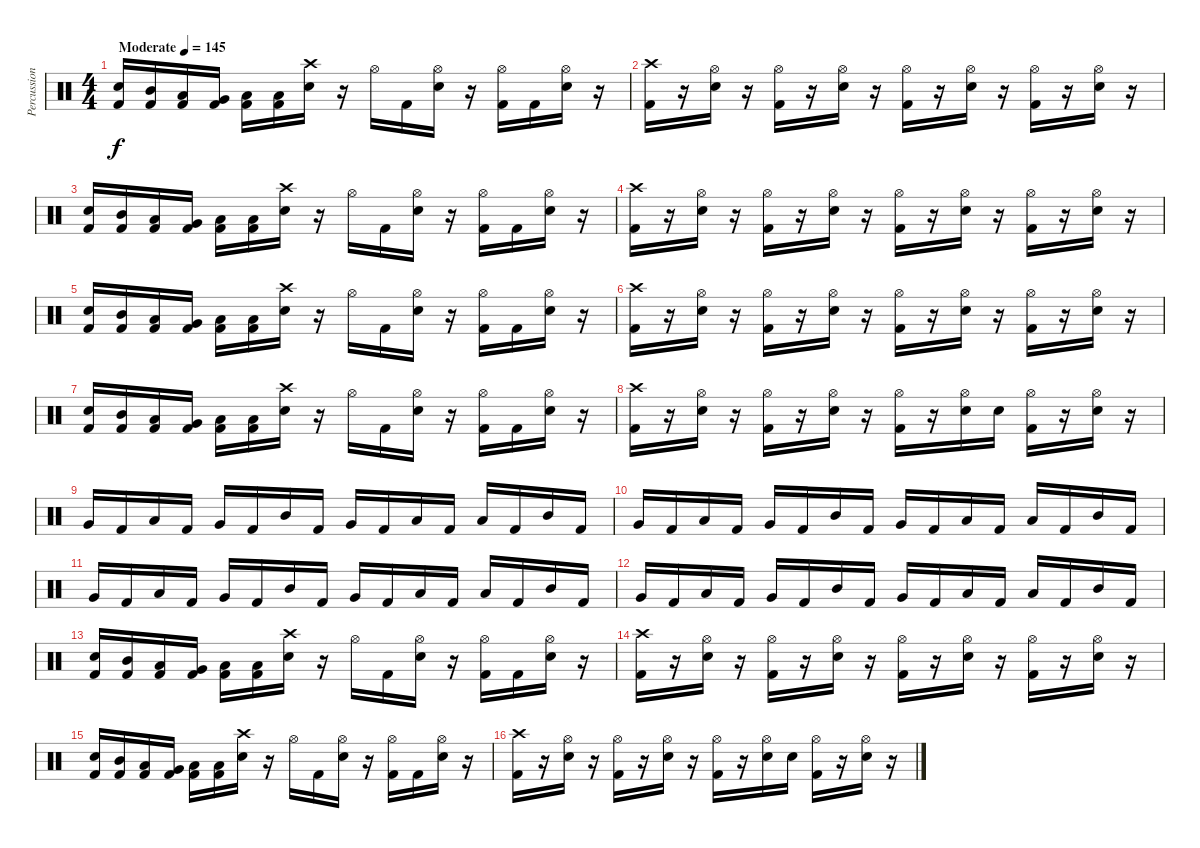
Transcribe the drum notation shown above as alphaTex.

\track ("Percussion - pinch" "Percussion") {instrument percussion}
\staff
\articulation defaults
\ts (4 4)
\tempo (145 "Moderate")
\clef neutral
\ks c
("Electric Snare (hit)" "Kick (hit) 2").16{dy f} ("Mid Tom (hit)" "Kick (hit) 2").16 ("Low Tom (hit)" "Kick (hit) 2").16 ("Very Low Tom (hit)" "Kick (hit) 2").16 ("Low Floor Tom (hit)" "Kick (hit) 2").16 ("Low Floor Tom (hit)" "Kick (hit) 2").16 ("Crash high (hit)" "Electric Snare (hit)").16 r.16 "Hi-Hat (open)".16 "Kick (hit) 2".16 ("Hi-Hat (open)" "Electric Snare (hit)").16 r.16 ("Hi-Hat (open)" "Kick (hit) 2").16 "Kick (hit) 2".16 ("Hi-Hat (open)" "Electric Snare (hit)").16 r.16 |
("Crash high (hit)" "Kick (hit) 2").16 r.16 ("Hi-Hat (open)" "Electric Snare (hit)").16 r.16 ("Hi-Hat (open)" "Kick (hit) 2").16 r.16 ("Hi-Hat (open)" "Electric Snare (hit)").16 r.16 ("Hi-Hat (open)" "Kick (hit) 2").16 r.16 ("Hi-Hat (open)" "Electric Snare (hit)").16 r.16 ("Hi-Hat (open)" "Kick (hit) 2").16 r.16 ("Hi-Hat (open)" "Electric Snare (hit)").16 r.16 |
("Electric Snare (hit)" "Kick (hit) 2").16 ("Mid Tom (hit)" "Kick (hit) 2").16 ("Low Tom (hit)" "Kick (hit) 2").16 ("Very Low Tom (hit)" "Kick (hit) 2").16 ("Low Floor Tom (hit)" "Kick (hit) 2").16 ("Low Floor Tom (hit)" "Kick (hit) 2").16 ("Crash high (hit)" "Electric Snare (hit)").16 r.16 "Hi-Hat (open)".16 "Kick (hit) 2".16 ("Hi-Hat (open)" "Electric Snare (hit)").16 r.16 ("Hi-Hat (open)" "Kick (hit) 2").16 "Kick (hit) 2".16 ("Hi-Hat (open)" "Electric Snare (hit)").16 r.16 |
("Crash high (hit)" "Kick (hit) 2").16 r.16 ("Hi-Hat (open)" "Electric Snare (hit)").16 r.16 ("Hi-Hat (open)" "Kick (hit) 2").16 r.16 ("Hi-Hat (open)" "Electric Snare (hit)").16 r.16 ("Hi-Hat (open)" "Kick (hit) 2").16 r.16 ("Hi-Hat (open)" "Electric Snare (hit)").16 r.16 ("Hi-Hat (open)" "Kick (hit) 2").16 r.16 ("Hi-Hat (open)" "Electric Snare (hit)").16 r.16 |
("Electric Snare (hit)" "Kick (hit) 2").16 ("Mid Tom (hit)" "Kick (hit) 2").16 ("Low Tom (hit)" "Kick (hit) 2").16 ("Very Low Tom (hit)" "Kick (hit) 2").16 ("Low Floor Tom (hit)" "Kick (hit) 2").16 ("Low Floor Tom (hit)" "Kick (hit) 2").16 ("Crash high (hit)" "Electric Snare (hit)").16 r.16 "Hi-Hat (open)".16 "Kick (hit) 2".16 ("Hi-Hat (open)" "Electric Snare (hit)").16 r.16 ("Hi-Hat (open)" "Kick (hit) 2").16 "Kick (hit) 2".16 ("Hi-Hat (open)" "Electric Snare (hit)").16 r.16 |
("Crash high (hit)" "Kick (hit) 2").16 r.16 ("Hi-Hat (open)" "Electric Snare (hit)").16 r.16 ("Hi-Hat (open)" "Kick (hit) 2").16 r.16 ("Hi-Hat (open)" "Electric Snare (hit)").16 r.16 ("Hi-Hat (open)" "Kick (hit) 2").16 r.16 ("Hi-Hat (open)" "Electric Snare (hit)").16 r.16 ("Hi-Hat (open)" "Kick (hit) 2").16 r.16 ("Hi-Hat (open)" "Electric Snare (hit)").16 r.16 |
("Electric Snare (hit)" "Kick (hit) 2").16 ("Mid Tom (hit)" "Kick (hit) 2").16 ("Low Tom (hit)" "Kick (hit) 2").16 ("Very Low Tom (hit)" "Kick (hit) 2").16 ("Low Floor Tom (hit)" "Kick (hit) 2").16 ("Low Floor Tom (hit)" "Kick (hit) 2").16 ("Crash high (hit)" "Electric Snare (hit)").16 r.16 "Hi-Hat (open)".16 "Kick (hit) 2".16 ("Hi-Hat (open)" "Electric Snare (hit)").16 r.16 ("Hi-Hat (open)" "Kick (hit) 2").16 "Kick (hit) 2".16 ("Hi-Hat (open)" "Electric Snare (hit)").16 r.16 |
("Crash high (hit)" "Kick (hit) 2").16 r.16 ("Hi-Hat (open)" "Electric Snare (hit)").16 r.16 ("Hi-Hat (open)" "Kick (hit) 2").16 r.16 ("Hi-Hat (open)" "Electric Snare (hit)").16 r.16 ("Hi-Hat (open)" "Kick (hit) 2").16 r.16 ("Hi-Hat (open)" "Electric Snare (hit)").16 "Electric Snare (hit)".16 ("Hi-Hat (open)" "Kick (hit) 2").16 r.16 ("Hi-Hat (open)" "Electric Snare (hit)").16 r.16 |
"Very Low Tom (hit)".16 "Kick (hit) 2".16 "Low Tom (hit)".16 "Kick (hit) 2".16 "Very Low Tom (hit)".16 "Kick (hit) 2".16 "Mid Tom (hit)".16 "Kick (hit) 2".16 "Very Low Tom (hit)".16 "Kick (hit) 2".16 "Low Tom (hit)".16 "Kick (hit) 2".16 "Low Floor Tom (hit)".16 "Kick (hit) 2".16 "Mid Tom (hit)".16 "Kick (hit) 2".16 |
"Very Low Tom (hit)".16 "Kick (hit) 2".16 "Low Tom (hit)".16 "Kick (hit) 2".16 "Very Low Tom (hit)".16 "Kick (hit) 2".16 "Mid Tom (hit)".16 "Kick (hit) 2".16 "Very Low Tom (hit)".16 "Kick (hit) 2".16 "Low Tom (hit)".16 "Kick (hit) 2".16 "Low Floor Tom (hit)".16 "Kick (hit) 2".16 "Mid Tom (hit)".16 "Kick (hit) 2".16 |
"Very Low Tom (hit)".16 "Kick (hit) 2".16 "Low Tom (hit)".16 "Kick (hit) 2".16 "Very Low Tom (hit)".16 "Kick (hit) 2".16 "Mid Tom (hit)".16 "Kick (hit) 2".16 "Very Low Tom (hit)".16 "Kick (hit) 2".16 "Low Tom (hit)".16 "Kick (hit) 2".16 "Low Floor Tom (hit)".16 "Kick (hit) 2".16 "Mid Tom (hit)".16 "Kick (hit) 2".16 |
"Very Low Tom (hit)".16 "Kick (hit) 2".16 "Low Tom (hit)".16 "Kick (hit) 2".16 "Very Low Tom (hit)".16 "Kick (hit) 2".16 "Mid Tom (hit)".16 "Kick (hit) 2".16 "Very Low Tom (hit)".16 "Kick (hit) 2".16 "Low Tom (hit)".16 "Kick (hit) 2".16 "Low Floor Tom (hit)".16 "Kick (hit) 2".16 "Mid Tom (hit)".16 "Kick (hit) 2".16 |
("Electric Snare (hit)" "Kick (hit) 2").16 ("Mid Tom (hit)" "Kick (hit) 2").16 ("Low Tom (hit)" "Kick (hit) 2").16 ("Very Low Tom (hit)" "Kick (hit) 2").16 ("Low Floor Tom (hit)" "Kick (hit) 2").16 ("Low Floor Tom (hit)" "Kick (hit) 2").16 ("Crash high (hit)" "Electric Snare (hit)").16 r.16 "Hi-Hat (open)".16 "Kick (hit) 2".16 ("Hi-Hat (open)" "Electric Snare (hit)").16 r.16 ("Hi-Hat (open)" "Kick (hit) 2").16 "Kick (hit) 2".16 ("Hi-Hat (open)" "Electric Snare (hit)").16 r.16 |
("Crash high (hit)" "Kick (hit) 2").16 r.16 ("Hi-Hat (open)" "Electric Snare (hit)").16 r.16 ("Hi-Hat (open)" "Kick (hit) 2").16 r.16 ("Hi-Hat (open)" "Electric Snare (hit)").16 r.16 ("Hi-Hat (open)" "Kick (hit) 2").16 r.16 ("Hi-Hat (open)" "Electric Snare (hit)").16 r.16 ("Hi-Hat (open)" "Kick (hit) 2").16 r.16 ("Hi-Hat (open)" "Electric Snare (hit)").16 r.16 |
("Electric Snare (hit)" "Kick (hit) 2").16 ("Mid Tom (hit)" "Kick (hit) 2").16 ("Low Tom (hit)" "Kick (hit) 2").16 ("Very Low Tom (hit)" "Kick (hit) 2").16 ("Low Floor Tom (hit)" "Kick (hit) 2").16 ("Low Floor Tom (hit)" "Kick (hit) 2").16 ("Crash high (hit)" "Electric Snare (hit)").16 r.16 "Hi-Hat (open)".16 "Kick (hit) 2".16 ("Hi-Hat (open)" "Electric Snare (hit)").16 r.16 ("Hi-Hat (open)" "Kick (hit) 2").16 "Kick (hit) 2".16 ("Hi-Hat (open)" "Electric Snare (hit)").16 r.16 |
("Crash high (hit)" "Kick (hit) 2").16 r.16 ("Hi-Hat (open)" "Electric Snare (hit)").16 r.16 ("Hi-Hat (open)" "Kick (hit) 2").16 r.16 ("Hi-Hat (open)" "Electric Snare (hit)").16 r.16 ("Hi-Hat (open)" "Kick (hit) 2").16 r.16 ("Hi-Hat (open)" "Electric Snare (hit)").16 "Electric Snare (hit)".16 ("Hi-Hat (open)" "Kick (hit) 2").16 r.16 ("Hi-Hat (open)" "Electric Snare (hit)").16 r.16
